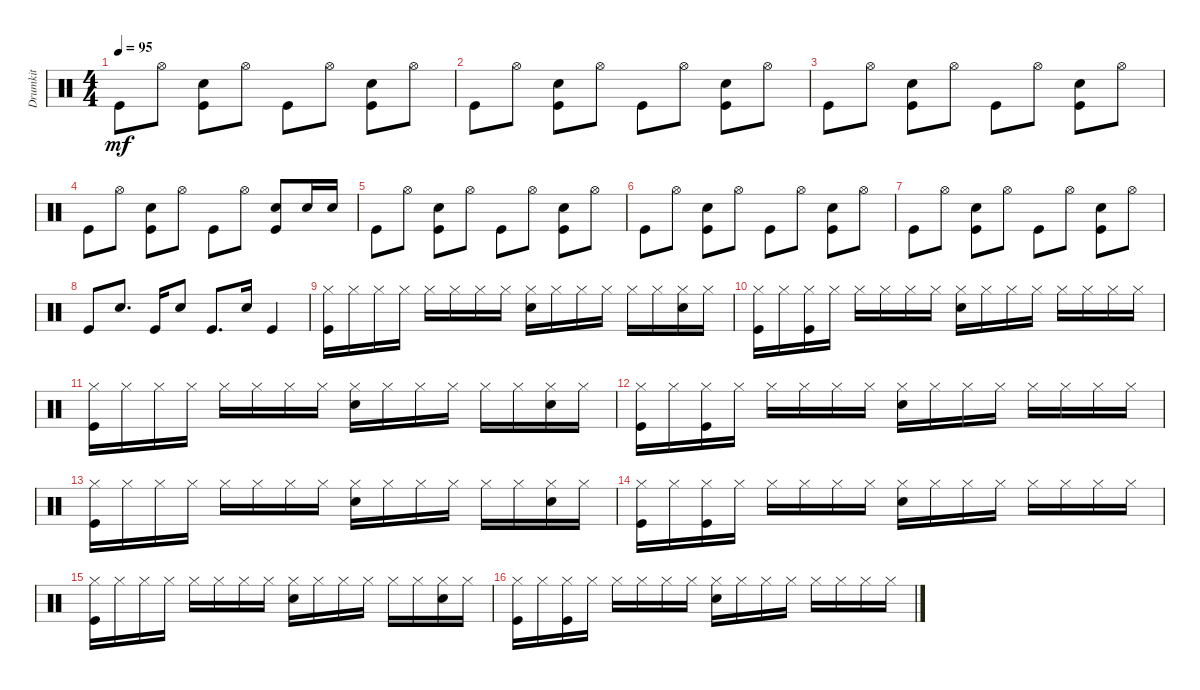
\track ("Drumkit" "Drumkit") {instrument percussion}
\staff {score}
\articulation defaults
\ts (4 4)
\tempo 95
\clef neutral
\ks c "Kick (hit)".8{dy mf} "Hi-Hat (open)".8
("Snare (hit) 2" "Kick (hit)").8 "Hi-Hat (open)".8 "Kick (hit)".8 "Hi-Hat (open)".8 ("Snare (hit) 2" "Kick (hit)").8 "Hi-Hat (open)".8 |
"Kick (hit)".8 "Hi-Hat (open)".8 ("Snare (hit) 2" "Kick (hit)").8 "Hi-Hat (open)".8 "Kick (hit)".8 "Hi-Hat (open)".8 ("Snare (hit) 2" "Kick (hit)").8 "Hi-Hat (open)".8 |
"Kick (hit)".8 "Hi-Hat (open)".8 ("Snare (hit) 2" "Kick (hit)").8 "Hi-Hat (open)".8 "Kick (hit)".8 "Hi-Hat (open)".8 ("Snare (hit) 2" "Kick (hit)").8 "Hi-Hat (open)".8 |
"Kick (hit)".8 "Hi-Hat (open)".8 ("Snare (hit) 2" "Kick (hit)").8 "Hi-Hat (open)".8 "Kick (hit)".8 "Hi-Hat (open)".8 ("Snare (hit) 2" "Kick (hit)").8 "Snare (hit) 2".16 "Snare (hit) 2".16 |
"Kick (hit)".8 "Hi-Hat (open)".8 ("Snare (hit) 2" "Kick (hit)").8 "Hi-Hat (open)".8 "Kick (hit)".8 "Hi-Hat (open)".8 ("Snare (hit) 2" "Kick (hit)").8 "Hi-Hat (open)".8 |
"Kick (hit)".8 "Hi-Hat (open)".8 ("Snare (hit) 2" "Kick (hit)").8 "Hi-Hat (open)".8 "Kick (hit)".8 "Hi-Hat (open)".8 ("Snare (hit) 2" "Kick (hit)").8 "Hi-Hat (open)".8 |
"Kick (hit)".8 "Hi-Hat (open)".8 ("Snare (hit) 2" "Kick (hit)").8 "Hi-Hat (open)".8 "Kick (hit)".8 "Hi-Hat (open)".8 ("Snare (hit) 2" "Kick (hit)").8 "Hi-Hat (open)".8 |
"Kick (hit)".8 "Snare (hit) 2".8{d} "Kick (hit)".16 "Snare (hit) 2".8 "Kick (hit)".8{d} "Snare (hit) 2".16 "Kick (hit)".4 |
("Hi-Hat (closed)" "Kick (hit)").16 "Hi-Hat (closed)".16 "Hi-Hat (closed)".16 "Hi-Hat (closed)".16 "Hi-Hat (closed)".16 "Hi-Hat (closed)".16 "Hi-Hat (closed)".16 "Hi-Hat (closed)".16 ("Snare (hit) 2" "Hi-Hat (closed)").16 "Hi-Hat (closed)".16 "Hi-Hat (closed)".16 "Hi-Hat (closed)".16 "Hi-Hat (closed)".16 "Hi-Hat (closed)".16 ("Snare (hit) 2" "Hi-Hat (closed)").16 "Hi-Hat (closed)".16 |
("Hi-Hat (closed)" "Kick (hit)").16 "Hi-Hat (closed)".16 ("Hi-Hat (closed)" "Kick (hit)").16 "Hi-Hat (closed)".16 "Hi-Hat (closed)".16 "Hi-Hat (closed)".16 "Hi-Hat (closed)".16 "Hi-Hat (closed)".16 ("Snare (hit) 2" "Hi-Hat (closed)").16 "Hi-Hat (closed)".16 "Hi-Hat (closed)".16 "Hi-Hat (closed)".16 "Hi-Hat (closed)".16 "Hi-Hat (closed)".16 "Hi-Hat (closed)".16 "Hi-Hat (closed)".16 |
("Hi-Hat (closed)" "Kick (hit)").16 "Hi-Hat (closed)".16 "Hi-Hat (closed)".16 "Hi-Hat (closed)".16 "Hi-Hat (closed)".16 "Hi-Hat (closed)".16 "Hi-Hat (closed)".16 "Hi-Hat (closed)".16 ("Snare (hit) 2" "Hi-Hat (closed)").16 "Hi-Hat (closed)".16 "Hi-Hat (closed)".16 "Hi-Hat (closed)".16 "Hi-Hat (closed)".16 "Hi-Hat (closed)".16 ("Snare (hit) 2" "Hi-Hat (closed)").16 "Hi-Hat (closed)".16 |
("Hi-Hat (closed)" "Kick (hit)").16 "Hi-Hat (closed)".16 ("Hi-Hat (closed)" "Kick (hit)").16 "Hi-Hat (closed)".16 "Hi-Hat (closed)".16 "Hi-Hat (closed)".16 "Hi-Hat (closed)".16 "Hi-Hat (closed)".16 ("Snare (hit) 2" "Hi-Hat (closed)").16 "Hi-Hat (closed)".16 "Hi-Hat (closed)".16 "Hi-Hat (closed)".16 "Hi-Hat (closed)".16 "Hi-Hat (closed)".16 "Hi-Hat (closed)".16 "Hi-Hat (closed)".16 |
("Hi-Hat (closed)" "Kick (hit)").16 "Hi-Hat (closed)".16 "Hi-Hat (closed)".16 "Hi-Hat (closed)".16 "Hi-Hat (closed)".16 "Hi-Hat (closed)".16 "Hi-Hat (closed)".16 "Hi-Hat (closed)".16 ("Snare (hit) 2" "Hi-Hat (closed)").16 "Hi-Hat (closed)".16 "Hi-Hat (closed)".16 "Hi-Hat (closed)".16 "Hi-Hat (closed)".16 "Hi-Hat (closed)".16 ("Snare (hit) 2" "Hi-Hat (closed)").16 "Hi-Hat (closed)".16 |
("Hi-Hat (closed)" "Kick (hit)").16 "Hi-Hat (closed)".16 ("Hi-Hat (closed)" "Kick (hit)").16 "Hi-Hat (closed)".16 "Hi-Hat (closed)".16 "Hi-Hat (closed)".16 "Hi-Hat (closed)".16 "Hi-Hat (closed)".16 ("Snare (hit) 2" "Hi-Hat (closed)").16 "Hi-Hat (closed)".16 "Hi-Hat (closed)".16 "Hi-Hat (closed)".16 "Hi-Hat (closed)".16 "Hi-Hat (closed)".16 "Hi-Hat (closed)".16 "Hi-Hat (closed)".16 |
("Hi-Hat (closed)" "Kick (hit)").16 "Hi-Hat (closed)".16 "Hi-Hat (closed)".16 "Hi-Hat (closed)".16 "Hi-Hat (closed)".16 "Hi-Hat (closed)".16 "Hi-Hat (closed)".16 "Hi-Hat (closed)".16 ("Snare (hit) 2" "Hi-Hat (closed)").16 "Hi-Hat (closed)".16 "Hi-Hat (closed)".16 "Hi-Hat (closed)".16 "Hi-Hat (closed)".16 "Hi-Hat (closed)".16 ("Snare (hit) 2" "Hi-Hat (closed)").16 "Hi-Hat (closed)".16 |
("Hi-Hat (closed)" "Kick (hit)").16 "Hi-Hat (closed)".16 ("Hi-Hat (closed)" "Kick (hit)").16 "Hi-Hat (closed)".16 "Hi-Hat (closed)".16 "Hi-Hat (closed)".16 "Hi-Hat (closed)".16 "Hi-Hat (closed)".16 ("Snare (hit) 2" "Hi-Hat (closed)").16 "Hi-Hat (closed)".16 "Hi-Hat (closed)".16 "Hi-Hat (closed)".16 "Hi-Hat (closed)".16 "Hi-Hat (closed)".16 "Hi-Hat (closed)".16 "Hi-Hat (closed)".16
